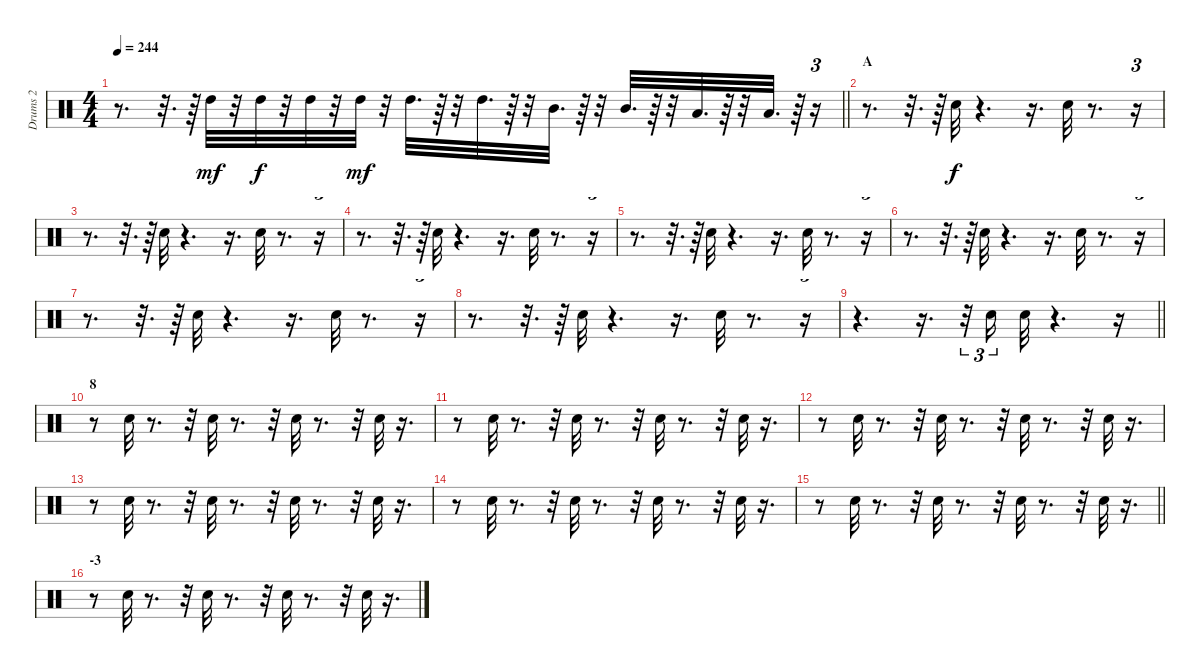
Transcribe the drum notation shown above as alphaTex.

\track ("Drums 2" "Drums 2") {instrument percussion}
\staff {score}
\articulation defaults
\ts (4 4)
\tempo 244
\clef neutral
\barLineRight lightlight
\ks c
r.8{d dy f} r.32{d} r.64 "High Tom (hit)".32{dy mf} r.32 "High Tom (hit)".32{dy f} r.32 "High Tom (hit)".32 r.32 "High Tom (hit)".32{dy mf} r.32 "High Tom (hit)".32{d} r.64 r.32 "High Tom (hit)".32{d} r.64 r.32 "Mid Tom (hit)".32{d} r.64 r.32 "Mid Tom (hit)".32{d} r.64 r.32 "Low Tom (hit)".32{d} r.64 r.32 "Low Tom (hit)".32{d} r.64 r.16{tu (3 2)} |
\section ("" "A")
r.8{d} r.32{d} r.64 "Electric Snare (hit)".32{dy f} r.4{d} r.16{d} "Electric Snare (hit)".32 r.8{d} r.16{tu (3 2)} |
r.8{d} r.32{d} r.64 "Electric Snare (hit)".32 r.4{d} r.16{d} "Electric Snare (hit)".32 r.8{d} r.16{tu (3 2)} |
r.8{d} r.32{d} r.64 "Electric Snare (hit)".32 r.4{d} r.16{d} "Electric Snare (hit)".32 r.8{d} r.16{tu (3 2)} |
r.8{d} r.32{d} r.64 "Electric Snare (hit)".32 r.4{d} r.16{d} "Electric Snare (hit)".32 r.8{d} r.16{tu (3 2)} |
r.8{d} r.32{d} r.64 "Electric Snare (hit)".32 r.4{d} r.16{d} "Electric Snare (hit)".32 r.8{d} r.16{tu (3 2)} |
r.8{d} r.32{d} r.64 "Electric Snare (hit)".32 r.4{d} r.16{d} "Electric Snare (hit)".32 r.8{d} r.16{tu (3 2)} |
r.8{d} r.32{d} r.64 "Electric Snare (hit)".32 r.4{d} r.16{d} "Electric Snare (hit)".32 r.8{d} r.16{tu (3 2)} |
\barLineRight lightlight
r.4{d} r.16{d} r.32{tu (3 2)} "Electric Snare (hit)".16{tu (3 2)} "Electric Snare (hit)".32 r.4{d} r.16 |
\section ("" "8")
r.8 "Electric Snare (hit)".32 r.8{d} r.32 "Electric Snare (hit)".32 r.8{d} r.32 "Electric Snare (hit)".32 r.8{d} r.32 "Electric Snare (hit)".32 r.16{d} |
r.8 "Electric Snare (hit)".32 r.8{d} r.32 "Electric Snare (hit)".32 r.8{d} r.32 "Electric Snare (hit)".32 r.8{d} r.32 "Electric Snare (hit)".32 r.16{d} |
r.8 "Electric Snare (hit)".32 r.8{d} r.32 "Electric Snare (hit)".32 r.8{d} r.32 "Electric Snare (hit)".32 r.8{d} r.32 "Electric Snare (hit)".32 r.16{d} |
r.8 "Electric Snare (hit)".32 r.8{d} r.32 "Electric Snare (hit)".32 r.8{d} r.32 "Electric Snare (hit)".32 r.8{d} r.32 "Electric Snare (hit)".32 r.16{d} |
r.8 "Electric Snare (hit)".32 r.8{d} r.32 "Electric Snare (hit)".32 r.8{d} r.32 "Electric Snare (hit)".32 r.8{d} r.32 "Electric Snare (hit)".32 r.16{d} |
\barLineRight lightlight
r.8 "Electric Snare (hit)".32 r.8{d} r.32 "Electric Snare (hit)".32 r.8{d} r.32 "Electric Snare (hit)".32 r.8{d} r.32 "Electric Snare (hit)".32 r.16{d} |
\section ("" "-3")
r.8 "Electric Snare (hit)".32 r.8{d} r.32 "Electric Snare (hit)".32 r.8{d} r.32 "Electric Snare (hit)".32 r.8{d} r.32 "Electric Snare (hit)".32 r.16{d}
